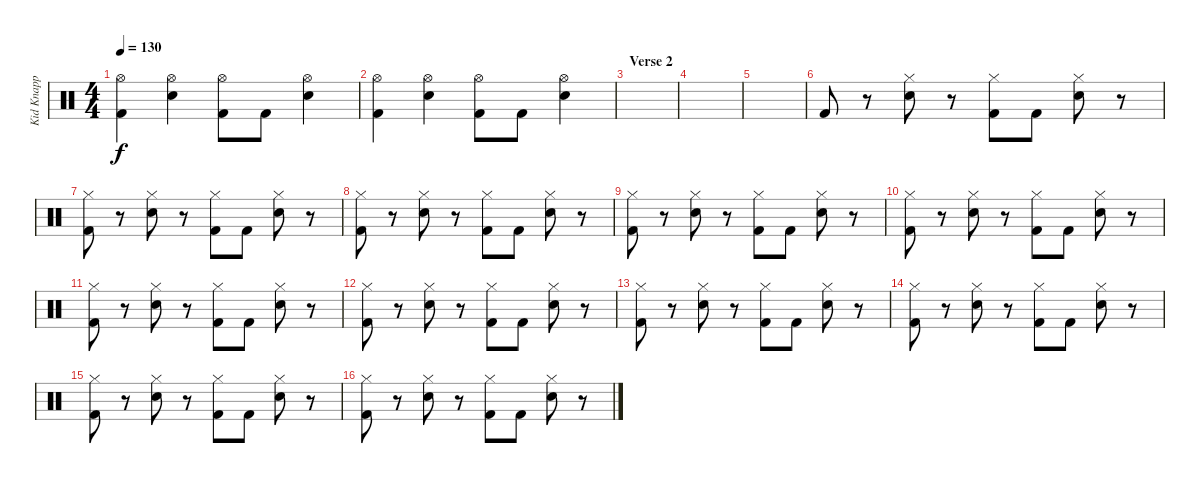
\track ("Kid Knapp (Drums)" "Kid Knapp ") {instrument percussion}
\staff {score}
\articulation defaults
\ts (4 4)
\tempo 130
\clef neutral
\ks c
("Hi-Hat (open)" "Kick (hit) 2").4{dy f} ("Hi-Hat (open)" "Electric Snare (hit)").4 ("Hi-Hat (open)" "Kick (hit) 2").8 "Kick (hit) 2".8 ("Hi-Hat (open)" "Electric Snare (hit)").4 |
("Hi-Hat (open)" "Kick (hit) 2").4 ("Hi-Hat (open)" "Electric Snare (hit)").4 ("Hi-Hat (open)" "Kick (hit) 2").8 "Kick (hit) 2".8 ("Hi-Hat (open)" "Electric Snare (hit)").4 |
\section ("" "Verse 2")
|
|
|
"Kick (hit) 2".8 r.8 ("Hi-Hat (closed)" "Electric Snare (hit)").8 r.8 ("Hi-Hat (closed)" "Kick (hit) 2").8 "Kick (hit) 2".8 ("Hi-Hat (closed)" "Electric Snare (hit)").8 r.8 |
("Hi-Hat (closed)" "Kick (hit) 2").8 r.8 ("Hi-Hat (closed)" "Electric Snare (hit)").8 r.8 ("Hi-Hat (closed)" "Kick (hit) 2").8 "Kick (hit) 2".8 ("Hi-Hat (closed)" "Electric Snare (hit)").8 r.8 |
("Hi-Hat (closed)" "Kick (hit) 2").8 r.8 ("Hi-Hat (closed)" "Electric Snare (hit)").8 r.8 ("Hi-Hat (closed)" "Kick (hit) 2").8 "Kick (hit) 2".8 ("Hi-Hat (closed)" "Electric Snare (hit)").8 r.8 |
("Hi-Hat (closed)" "Kick (hit) 2").8 r.8 ("Hi-Hat (closed)" "Electric Snare (hit)").8 r.8 ("Hi-Hat (closed)" "Kick (hit) 2").8 "Kick (hit) 2".8 ("Hi-Hat (closed)" "Electric Snare (hit)").8 r.8 |
("Hi-Hat (closed)" "Kick (hit) 2").8 r.8 ("Hi-Hat (closed)" "Electric Snare (hit)").8 r.8 ("Hi-Hat (closed)" "Kick (hit) 2").8 "Kick (hit) 2".8 ("Hi-Hat (closed)" "Electric Snare (hit)").8 r.8 |
("Hi-Hat (closed)" "Kick (hit) 2").8 r.8 ("Hi-Hat (closed)" "Electric Snare (hit)").8 r.8 ("Hi-Hat (closed)" "Kick (hit) 2").8 "Kick (hit) 2".8 ("Hi-Hat (closed)" "Electric Snare (hit)").8 r.8 |
("Hi-Hat (closed)" "Kick (hit) 2").8 r.8 ("Hi-Hat (closed)" "Electric Snare (hit)").8 r.8 ("Hi-Hat (closed)" "Kick (hit) 2").8 "Kick (hit) 2".8 ("Hi-Hat (closed)" "Electric Snare (hit)").8 r.8 |
("Hi-Hat (closed)" "Kick (hit) 2").8 r.8 ("Hi-Hat (closed)" "Electric Snare (hit)").8 r.8 ("Hi-Hat (closed)" "Kick (hit) 2").8 "Kick (hit) 2".8 ("Hi-Hat (closed)" "Electric Snare (hit)").8 r.8 |
("Hi-Hat (closed)" "Kick (hit) 2").8 r.8 ("Hi-Hat (closed)" "Electric Snare (hit)").8 r.8 ("Hi-Hat (closed)" "Kick (hit) 2").8 "Kick (hit) 2".8 ("Hi-Hat (closed)" "Electric Snare (hit)").8 r.8 |
("Hi-Hat (closed)" "Kick (hit) 2").8 r.8 ("Hi-Hat (closed)" "Electric Snare (hit)").8 r.8 ("Hi-Hat (closed)" "Kick (hit) 2").8 "Kick (hit) 2".8 ("Hi-Hat (closed)" "Electric Snare (hit)").8 r.8 |
("Hi-Hat (closed)" "Kick (hit) 2").8 r.8 ("Hi-Hat (closed)" "Electric Snare (hit)").8 r.8 ("Hi-Hat (closed)" "Kick (hit) 2").8 "Kick (hit) 2".8 ("Hi-Hat (closed)" "Electric Snare (hit)").8 r.8
